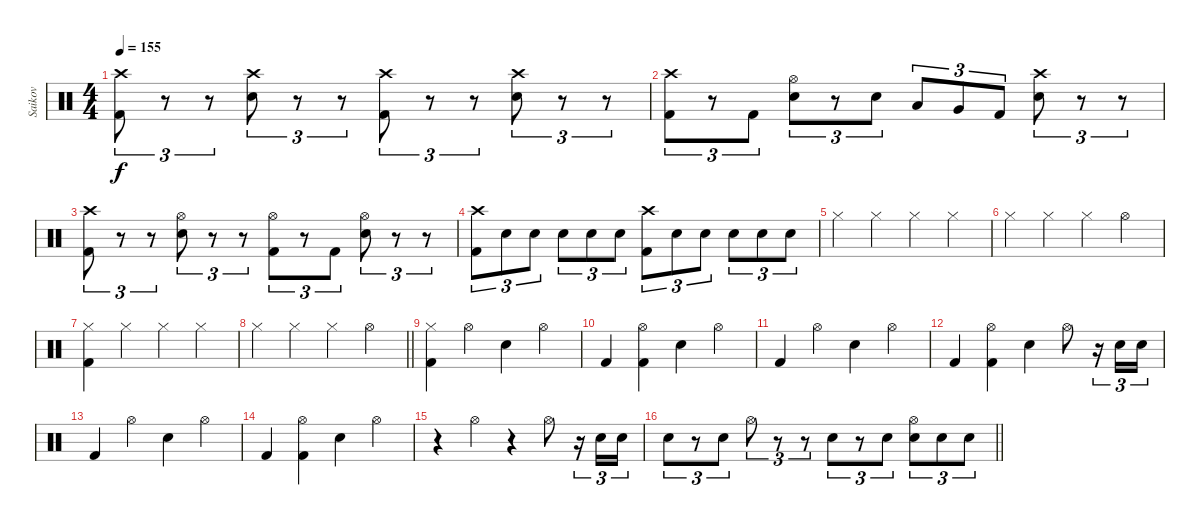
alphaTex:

\track ("Saikov" "Saikov") {instrument percussion}
\staff {score}
\articulation defaults
\ts (4 4)
\tempo 155
\clef neutral
\ks c
("Crash high (hit)" "Kick (hit) 2").8{tu (3 2) dy f} r.8{tu (3 2)} r.8{tu (3 2)} ("Crash high (hit)" "Snare (hit) 2").8{tu (3 2)} r.8{tu (3 2)} r.8{tu (3 2)} ("Crash high (hit)" "Kick (hit) 2").8{tu (3 2)} r.8{tu (3 2)} r.8{tu (3 2)} ("Crash high (hit)" "Snare (hit) 2").8{tu (3 2)} r.8{tu (3 2)} r.8{tu (3 2)} |
("Crash high (hit)" "Kick (hit) 2").8{tu (3 2)} r.8{tu (3 2)} "Kick (hit) 2".8{tu (3 2)} ("Hi-Hat (open)" "Snare (hit) 2").8{tu (3 2)} r.8{tu (3 2)} "Snare (hit) 2".8{tu (3 2)} "Low Tom (hit)".8{tu (3 2)} "Very Low Tom (hit)".8{tu (3 2)} "Kick (hit) 2".8{tu (3 2)} ("Crash high (hit)" "Snare (hit) 2").8{tu (3 2)} r.8{tu (3 2)} r.8{tu (3 2)} |
("Crash high (hit)" "Kick (hit) 2").8{tu (3 2)} r.8{tu (3 2)} r.8{tu (3 2)} ("Hi-Hat (open)" "Snare (hit) 2").8{tu (3 2)} r.8{tu (3 2)} r.8{tu (3 2)} ("Hi-Hat (open)" "Kick (hit) 2").8{tu (3 2)} r.8{tu (3 2)} "Kick (hit) 2".8{tu (3 2)} ("Hi-Hat (open)" "Snare (hit) 2").8{tu (3 2)} r.8{tu (3 2)} r.8{tu (3 2)} |
("Crash high (hit)" "Kick (hit) 2").8{tu (3 2)} "Snare (hit) 2".8{tu (3 2)} "Snare (hit) 2".8{tu (3 2)} "Snare (hit) 2".8{tu (3 2)} "Snare (hit) 2".8{tu (3 2)} "Snare (hit) 2".8{tu (3 2)} ("Crash high (hit)" "Kick (hit) 2").8{tu (3 2)} "Snare (hit) 2".8{tu (3 2)} "Snare (hit) 2".8{tu (3 2)} "Snare (hit) 2".8{tu (3 2)} "Snare (hit) 2".8{tu (3 2)} "Snare (hit) 2".8{tu (3 2)} |
"Hi-Hat (closed)".4 "Hi-Hat (closed)".4 "Hi-Hat (closed)".4 "Hi-Hat (closed)".4 |
"Hi-Hat (closed)".4 "Hi-Hat (closed)".4 "Hi-Hat (closed)".4 "Hi-Hat (open)".4 |
("Hi-Hat (closed)" "Kick (hit) 2").4 "Hi-Hat (closed)".4 "Hi-Hat (closed)".4 "Hi-Hat (closed)".4 |
\barLineRight lightlight "Hi-Hat (closed)".4 "Hi-Hat (closed)".4 "Hi-Hat (closed)".4 "Hi-Hat (open)".4
|
("Hi-Hat (closed)" "Kick (hit) 2").4 "Hi-Hat (open)".4 "Snare (hit) 2".4 "Hi-Hat (open)".4 |
"Kick (hit) 2".4 ("Hi-Hat (open)" "Kick (hit) 2").4 "Snare (hit) 2".4 "Hi-Hat (open)".4 |
"Kick (hit) 2".4 "Hi-Hat (open)".4 "Snare (hit) 2".4 "Hi-Hat (open)".4 |
"Kick (hit) 2".4 ("Hi-Hat (open)" "Kick (hit) 2").4 "Snare (hit) 2".4 "Hi-Hat (open)".8 r.16{tu (3 2)} "Snare (hit) 2".16{tu (3 2)} "Snare (hit) 2".16{tu (3 2)} |
"Kick (hit) 2".4 "Hi-Hat (open)".4 "Snare (hit) 2".4 "Hi-Hat (open)".4 |
"Kick (hit) 2".4 ("Hi-Hat (open)" "Kick (hit) 2").4 "Snare (hit) 2".4 "Hi-Hat (open)".4 |
r.4 "Hi-Hat (open)".4 r.4 "Hi-Hat (open)".8 r.16{tu (3 2)} "Snare (hit) 2".16{tu (3 2)} "Snare (hit) 2".16{tu (3 2)} |
\barLineRight lightlight "Snare (hit) 2".8{tu (3 2)}
r.8{tu (3 2)} "Snare (hit) 2".8{tu (3 2)} "Hi-Hat (open)".8{tu (3 2)} r.8{tu (3 2)} r.8{tu (3 2)} "Snare (hit) 2".8{tu (3 2)} r.8{tu (3 2)} "Snare (hit) 2".8{tu (3 2)} ("Hi-Hat (open)" "Snare (hit) 2").8{tu (3 2)} "Snare (hit) 2".8{tu (3 2)} "Snare (hit) 2".8{tu (3 2)}
